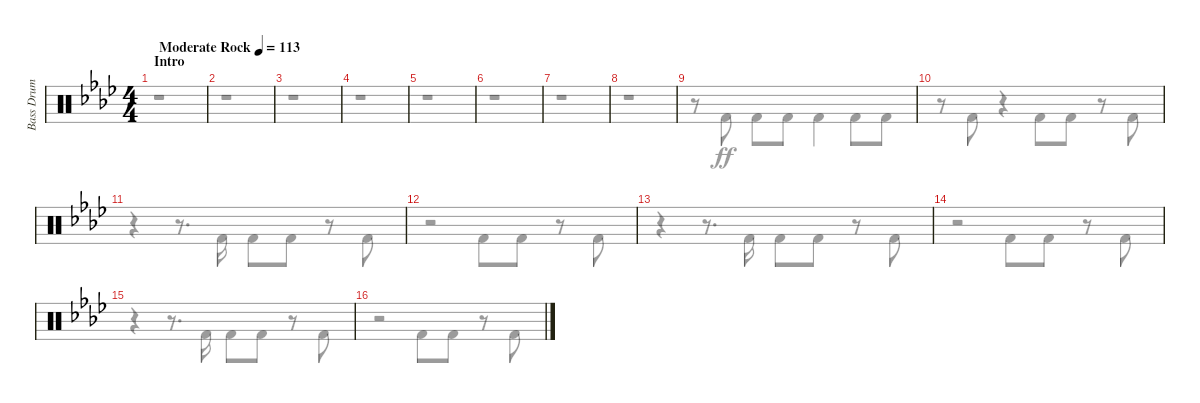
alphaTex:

\track ("Bass Drum" "Bass Drum") {instrument percussion}
\staff {score}
\articulation defaults
\voice
\ts (4 4)
\section ("" "Intro")
\tempo (113 "Moderate Rock")
\clef neutral
\ks fminor
|
|
|
|
|
|
|
|
|
|
|
|
|
|
|
\voice
\clef neutral
\ks fminor
r.1{dy ff} |
r.1 |
r.1 |
r.1 |
r.1 |
r.1 |
r.1 |
r.1 |
r.8 "Kick (hit) 2".8 "Kick (hit) 2".8 "Kick (hit) 2".8 "Kick (hit) 2".4 "Kick (hit) 2".8 "Kick (hit) 2".8 |
r.8 "Kick (hit) 2".8 r.4 "Kick (hit) 2".8 "Kick (hit) 2".8 r.8 "Kick (hit) 2".8 |
r.4 r.8{d} "Kick (hit) 2".16 "Kick (hit) 2".8 "Kick (hit) 2".8 r.8 "Kick (hit) 2".8 |
r.2 "Kick (hit) 2".8 "Kick (hit) 2".8 r.8 "Kick (hit) 2".8 |
r.4 r.8{d} "Kick (hit) 2".16 "Kick (hit) 2".8 "Kick (hit) 2".8 r.8 "Kick (hit) 2".8 |
r.2 "Kick (hit) 2".8 "Kick (hit) 2".8 r.8 "Kick (hit) 2".8 |
r.4 r.8{d} "Kick (hit) 2".16 "Kick (hit) 2".8 "Kick (hit) 2".8 r.8 "Kick (hit) 2".8 |
r.2 "Kick (hit) 2".8 "Kick (hit) 2".8 r.8 "Kick (hit) 2".8
